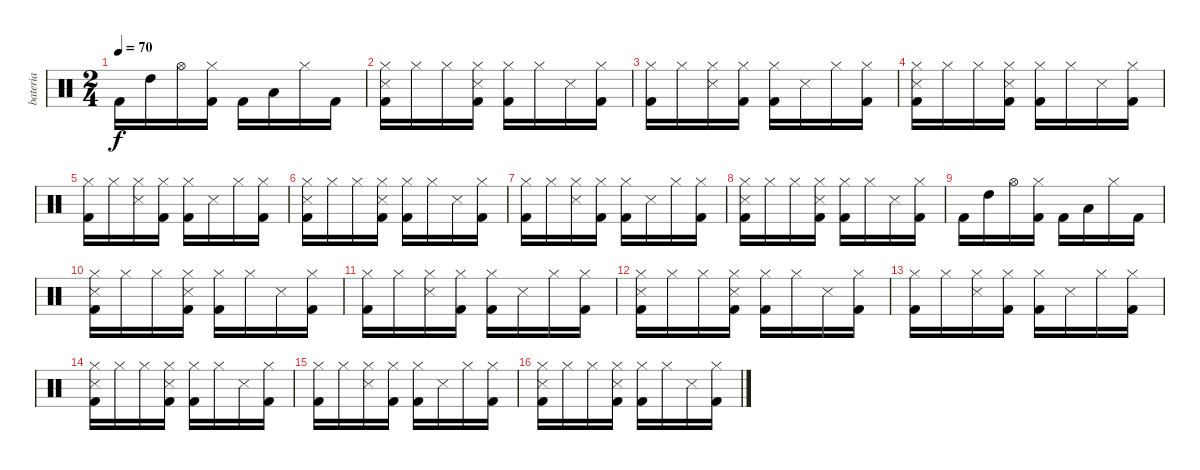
\track ("bateria" "bateria") {instrument percussion}
\staff {score}
\articulation defaults
\ts (2 4)
\tempo 70
\clef neutral
\ks c "Kick (hit) 2".16{dy f} "High Tom (hit)".16 "Hi-Hat (open)".16
("Hi-Hat (closed)" "Kick (hit) 2").16 "Kick (hit) 2".16 "Low Tom (hit)".16 "Hi-Hat (closed)".16 "Kick (hit) 2".16 |
("Hi-Hat (closed)" "Snare (side stick) 3" "Kick (hit) 2").16{volume 11} "Hi-Hat (closed)".16 "Hi-Hat (closed)".16 ("Hi-Hat (closed)" "Snare (side stick) 3" "Kick (hit) 2").16 ("Hi-Hat (closed)" "Kick (hit) 2").16 "Hi-Hat (closed)".16 "Snare (side stick) 3".16 ("Hi-Hat (closed)" "Kick (hit) 2").16 |
("Hi-Hat (closed)" "Kick (hit) 2").16 "Hi-Hat (closed)".16 ("Hi-Hat (closed)" "Snare (side stick) 3").16 ("Hi-Hat (closed)" "Kick (hit) 2").16 ("Hi-Hat (closed)" "Kick (hit) 2").16 "Snare (side stick) 3".16 "Hi-Hat (closed)".16 ("Hi-Hat (closed)" "Kick (hit) 2").16 |
("Hi-Hat (closed)" "Snare (side stick) 3" "Kick (hit) 2").16 "Hi-Hat (closed)".16 "Hi-Hat (closed)".16 ("Hi-Hat (closed)" "Snare (side stick) 3" "Kick (hit) 2").16 ("Hi-Hat (closed)" "Kick (hit) 2").16 "Hi-Hat (closed)".16 "Snare (side stick) 3".16 ("Hi-Hat (closed)" "Kick (hit) 2").16 |
("Hi-Hat (closed)" "Kick (hit) 2").16 "Hi-Hat (closed)".16 ("Hi-Hat (closed)" "Snare (side stick) 3").16 ("Hi-Hat (closed)" "Kick (hit) 2").16 ("Hi-Hat (closed)" "Kick (hit) 2").16 "Snare (side stick) 3".16 "Hi-Hat (closed)".16 ("Hi-Hat (closed)" "Kick (hit) 2").16 |
("Hi-Hat (closed)" "Snare (side stick) 3" "Kick (hit) 2").16 "Hi-Hat (closed)".16 "Hi-Hat (closed)".16 ("Hi-Hat (closed)" "Snare (side stick) 3" "Kick (hit) 2").16 ("Hi-Hat (closed)" "Kick (hit) 2").16 "Hi-Hat (closed)".16 "Snare (side stick) 3".16 ("Hi-Hat (closed)" "Kick (hit) 2").16 |
("Hi-Hat (closed)" "Kick (hit) 2").16 "Hi-Hat (closed)".16 ("Hi-Hat (closed)" "Snare (side stick) 3").16 ("Hi-Hat (closed)" "Kick (hit) 2").16 ("Hi-Hat (closed)" "Kick (hit) 2").16 "Snare (side stick) 3".16 "Hi-Hat (closed)".16 ("Hi-Hat (closed)" "Kick (hit) 2").16 |
("Hi-Hat (closed)" "Snare (side stick) 3" "Kick (hit) 2").16 "Hi-Hat (closed)".16 "Hi-Hat (closed)".16 ("Hi-Hat (closed)" "Snare (side stick) 3" "Kick (hit) 2").16 ("Hi-Hat (closed)" "Kick (hit) 2").16 "Hi-Hat (closed)".16 "Snare (side stick) 3".16 ("Hi-Hat (closed)" "Kick (hit) 2").16 |
"Kick (hit) 2".16{volume 15} "High Tom (hit)".16 "Hi-Hat (open)".16 ("Hi-Hat (closed)" "Kick (hit) 2").16 "Kick (hit) 2".16 "Low Tom (hit)".16 "Hi-Hat (closed)".16 "Kick (hit) 2".16 |
("Hi-Hat (closed)" "Snare (side stick) 3" "Kick (hit) 2").16 "Hi-Hat (closed)".16 "Hi-Hat (closed)".16 ("Hi-Hat (closed)" "Snare (side stick) 3" "Kick (hit) 2").16 ("Hi-Hat (closed)" "Kick (hit) 2").16 "Hi-Hat (closed)".16 "Snare (side stick) 3".16 ("Hi-Hat (closed)" "Kick (hit) 2").16 |
("Hi-Hat (closed)" "Kick (hit) 2").16 "Hi-Hat (closed)".16 ("Hi-Hat (closed)" "Snare (side stick) 3").16 ("Hi-Hat (closed)" "Kick (hit) 2").16 ("Hi-Hat (closed)" "Kick (hit) 2").16 "Snare (side stick) 3".16 "Hi-Hat (closed)".16 ("Hi-Hat (closed)" "Kick (hit) 2").16 |
("Hi-Hat (closed)" "Snare (side stick) 3" "Kick (hit) 2").16 "Hi-Hat (closed)".16 "Hi-Hat (closed)".16 ("Hi-Hat (closed)" "Snare (side stick) 3" "Kick (hit) 2").16 ("Hi-Hat (closed)" "Kick (hit) 2").16 "Hi-Hat (closed)".16 "Snare (side stick) 3".16 ("Hi-Hat (closed)" "Kick (hit) 2").16 |
("Hi-Hat (closed)" "Kick (hit) 2").16 "Hi-Hat (closed)".16 ("Hi-Hat (closed)" "Snare (side stick) 3").16 ("Hi-Hat (closed)" "Kick (hit) 2").16 ("Hi-Hat (closed)" "Kick (hit) 2").16 "Snare (side stick) 3".16 "Hi-Hat (closed)".16 ("Hi-Hat (closed)" "Kick (hit) 2").16 |
("Hi-Hat (closed)" "Snare (side stick) 3" "Kick (hit) 2").16 "Hi-Hat (closed)".16 "Hi-Hat (closed)".16 ("Hi-Hat (closed)" "Snare (side stick) 3" "Kick (hit) 2").16 ("Hi-Hat (closed)" "Kick (hit) 2").16 "Hi-Hat (closed)".16 "Snare (side stick) 3".16 ("Hi-Hat (closed)" "Kick (hit) 2").16 |
("Hi-Hat (closed)" "Kick (hit) 2").16 "Hi-Hat (closed)".16 ("Hi-Hat (closed)" "Snare (side stick) 3").16 ("Hi-Hat (closed)" "Kick (hit) 2").16 ("Hi-Hat (closed)" "Kick (hit) 2").16 "Snare (side stick) 3".16 "Hi-Hat (closed)".16 ("Hi-Hat (closed)" "Kick (hit) 2").16 |
("Hi-Hat (closed)" "Snare (side stick) 3" "Kick (hit) 2").16 "Hi-Hat (closed)".16 "Hi-Hat (closed)".16 ("Hi-Hat (closed)" "Snare (side stick) 3" "Kick (hit) 2").16 ("Hi-Hat (closed)" "Kick (hit) 2").16 "Hi-Hat (closed)".16 "Snare (side stick) 3".16 ("Hi-Hat (closed)" "Kick (hit) 2").16
